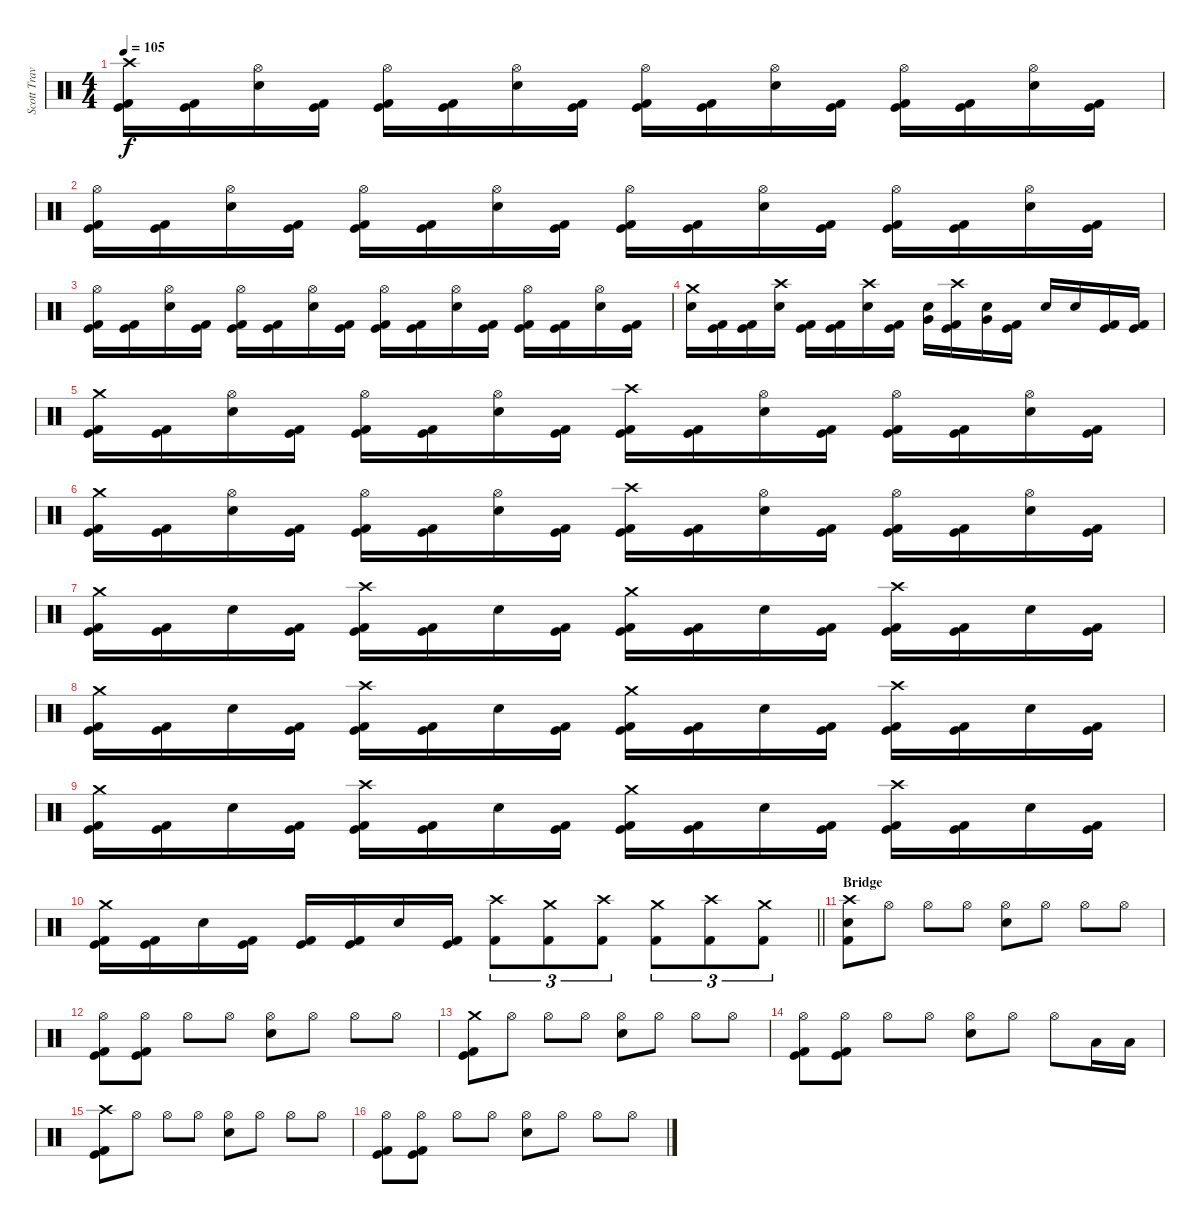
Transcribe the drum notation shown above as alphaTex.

\track ("Scott Travis" "Scott Trav") {instrument percussion}
\staff {score}
\articulation defaults
\ts (4 4)
\tempo 105
\clef neutral
\ks c
("Crash high (hit)" "Kick (hit) 2" "Kick (hit)").16{dy f} ("Kick (hit) 2" "Kick (hit)").16 ("Hi-Hat (open)" "Snare (hit) 2").16 ("Kick (hit) 2" "Kick (hit)").16 ("Hi-Hat (open)" "Kick (hit) 2" "Kick (hit)").16 ("Kick (hit) 2" "Kick (hit)").16 ("Hi-Hat (open)" "Snare (hit) 2").16 ("Kick (hit) 2" "Kick (hit)").16 ("Hi-Hat (open)" "Kick (hit) 2" "Kick (hit)").16 ("Kick (hit) 2" "Kick (hit)").16 ("Hi-Hat (open)" "Snare (hit) 2").16 ("Kick (hit) 2" "Kick (hit)").16 ("Hi-Hat (open)" "Kick (hit) 2" "Kick (hit)").16 ("Kick (hit) 2" "Kick (hit)").16 ("Hi-Hat (open)" "Snare (hit) 2").16 ("Kick (hit) 2" "Kick (hit)").16 |
("Hi-Hat (open)" "Kick (hit) 2" "Kick (hit)").16 ("Kick (hit) 2" "Kick (hit)").16 ("Hi-Hat (open)" "Snare (hit) 2").16 ("Kick (hit) 2" "Kick (hit)").16 ("Hi-Hat (open)" "Kick (hit) 2" "Kick (hit)").16 ("Kick (hit) 2" "Kick (hit)").16 ("Hi-Hat (open)" "Snare (hit) 2").16 ("Kick (hit) 2" "Kick (hit)").16 ("Hi-Hat (open)" "Kick (hit) 2" "Kick (hit)").16 ("Kick (hit) 2" "Kick (hit)").16 ("Hi-Hat (open)" "Snare (hit) 2").16 ("Kick (hit) 2" "Kick (hit)").16 ("Hi-Hat (open)" "Kick (hit) 2" "Kick (hit)").16 ("Kick (hit) 2" "Kick (hit)").16 ("Hi-Hat (open)" "Snare (hit) 2").16 ("Kick (hit) 2" "Kick (hit)").16 |
("Hi-Hat (open)" "Kick (hit) 2" "Kick (hit)").16 ("Kick (hit) 2" "Kick (hit)").16 ("Hi-Hat (open)" "Snare (hit) 2").16 ("Kick (hit) 2" "Kick (hit)").16 ("Hi-Hat (open)" "Kick (hit) 2" "Kick (hit)").16 ("Kick (hit) 2" "Kick (hit)").16 ("Hi-Hat (open)" "Snare (hit) 2").16 ("Kick (hit) 2" "Kick (hit)").16 ("Hi-Hat (open)" "Kick (hit) 2" "Kick (hit)").16 ("Kick (hit) 2" "Kick (hit)").16 ("Hi-Hat (open)" "Snare (hit) 2").16 ("Kick (hit) 2" "Kick (hit)").16 ("Hi-Hat (open)" "Kick (hit) 2" "Kick (hit)").16 ("Kick (hit) 2" "Kick (hit)").16 ("Hi-Hat (open)" "Snare (hit) 2").16 ("Kick (hit) 2" "Kick (hit)").16 |
("Crash medium (hit)" "Snare (hit) 2").16 ("Kick (hit) 2" "Kick (hit)").16 ("Kick (hit)" "Kick (hit) 2").16 ("Crash high (hit)" "Snare (hit) 2").16 ("Kick (hit) 2" "Kick (hit)").16 ("Kick (hit) 2" "Kick (hit)").16 ("Crash high (hit)" "Snare (hit) 2").16 ("Kick (hit) 2" "Kick (hit)").16 ("Snare (hit) 2" "Very Low Tom (hit)").16 ("Crash high (hit)" "Kick (hit) 2" "Kick (hit)").16 ("Snare (hit) 2" "Very Low Tom (hit)").16 ("Kick (hit) 2" "Kick (hit)").16 "Snare (hit) 2".16 "Snare (hit) 2".16 ("Kick (hit)" "Kick (hit) 2").16 ("Kick (hit) 2" "Kick (hit)").16 |
("Crash medium (hit)" "Kick (hit) 2" "Kick (hit)").16 ("Kick (hit) 2" "Kick (hit)").16 ("Hi-Hat (open)" "Snare (hit) 2").16 ("Kick (hit) 2" "Kick (hit)").16 ("Hi-Hat (open)" "Kick (hit) 2" "Kick (hit)").16 ("Kick (hit) 2" "Kick (hit)").16 ("Hi-Hat (open)" "Snare (hit) 2").16 ("Kick (hit) 2" "Kick (hit)").16 ("Crash high (hit)" "Kick (hit) 2" "Kick (hit)").16 ("Kick (hit) 2" "Kick (hit)").16 ("Hi-Hat (open)" "Snare (hit) 2").16 ("Kick (hit) 2" "Kick (hit)").16 ("Hi-Hat (open)" "Kick (hit) 2" "Kick (hit)").16 ("Kick (hit) 2" "Kick (hit)").16 ("Hi-Hat (open)" "Snare (hit) 2").16 ("Kick (hit) 2" "Kick (hit)").16 |
("Crash medium (hit)" "Kick (hit) 2" "Kick (hit)").16 ("Kick (hit) 2" "Kick (hit)").16 ("Hi-Hat (open)" "Snare (hit) 2").16 ("Kick (hit) 2" "Kick (hit)").16 ("Hi-Hat (open)" "Kick (hit) 2" "Kick (hit)").16 ("Kick (hit) 2" "Kick (hit)").16 ("Hi-Hat (open)" "Snare (hit) 2").16 ("Kick (hit) 2" "Kick (hit)").16 ("Crash high (hit)" "Kick (hit) 2" "Kick (hit)").16 ("Kick (hit) 2" "Kick (hit)").16 ("Hi-Hat (open)" "Snare (hit) 2").16 ("Kick (hit) 2" "Kick (hit)").16 ("Hi-Hat (open)" "Kick (hit) 2" "Kick (hit)").16 ("Kick (hit) 2" "Kick (hit)").16 ("Hi-Hat (open)" "Snare (hit) 2").16 ("Kick (hit) 2" "Kick (hit)").16 |
("Crash medium (hit)" "Kick (hit) 2" "Kick (hit)").16 ("Kick (hit) 2" "Kick (hit)").16 "Snare (hit) 2".16 ("Kick (hit) 2" "Kick (hit)").16 ("Crash high (hit)" "Kick (hit) 2" "Kick (hit)").16 ("Kick (hit) 2" "Kick (hit)").16 "Snare (hit) 2".16 ("Kick (hit) 2" "Kick (hit)").16 ("Crash medium (hit)" "Kick (hit) 2" "Kick (hit)").16 ("Kick (hit) 2" "Kick (hit)").16 "Snare (hit) 2".16 ("Kick (hit) 2" "Kick (hit)").16 ("Crash high (hit)" "Kick (hit) 2" "Kick (hit)").16 ("Kick (hit) 2" "Kick (hit)").16 "Snare (hit) 2".16 ("Kick (hit) 2" "Kick (hit)").16 |
("Crash medium (hit)" "Kick (hit) 2" "Kick (hit)").16 ("Kick (hit) 2" "Kick (hit)").16 "Snare (hit) 2".16 ("Kick (hit) 2" "Kick (hit)").16 ("Crash high (hit)" "Kick (hit) 2" "Kick (hit)").16 ("Kick (hit) 2" "Kick (hit)").16 "Snare (hit) 2".16 ("Kick (hit) 2" "Kick (hit)").16 ("Crash medium (hit)" "Kick (hit) 2" "Kick (hit)").16 ("Kick (hit) 2" "Kick (hit)").16 "Snare (hit) 2".16 ("Kick (hit) 2" "Kick (hit)").16 ("Crash high (hit)" "Kick (hit) 2" "Kick (hit)").16 ("Kick (hit) 2" "Kick (hit)").16 "Snare (hit) 2".16 ("Kick (hit) 2" "Kick (hit)").16 |
("Crash medium (hit)" "Kick (hit) 2" "Kick (hit)").16 ("Kick (hit) 2" "Kick (hit)").16 "Snare (hit) 2".16 ("Kick (hit) 2" "Kick (hit)").16 ("Crash high (hit)" "Kick (hit) 2" "Kick (hit)").16 ("Kick (hit) 2" "Kick (hit)").16 "Snare (hit) 2".16 ("Kick (hit) 2" "Kick (hit)").16 ("Crash medium (hit)" "Kick (hit) 2" "Kick (hit)").16 ("Kick (hit) 2" "Kick (hit)").16 "Snare (hit) 2".16 ("Kick (hit) 2" "Kick (hit)").16 ("Crash high (hit)" "Kick (hit) 2" "Kick (hit)").16 ("Kick (hit) 2" "Kick (hit)").16 "Snare (hit) 2".16 ("Kick (hit) 2" "Kick (hit)").16 |
\barLineRight lightlight
("Crash medium (hit)" "Kick (hit) 2" "Kick (hit)").16 ("Kick (hit) 2" "Kick (hit)").16 "Snare (hit) 2".16 ("Kick (hit) 2" "Kick (hit)").16 ("Kick (hit) 2" "Kick (hit)").16 ("Kick (hit) 2" "Kick (hit)").16 "Snare (hit) 2".16 ("Kick (hit) 2" "Kick (hit)").16 ("Crash high (hit)" "Kick (hit) 2").8{tu (3 2)} ("Crash medium (hit)" "Kick (hit) 2").8{tu (3 2)} ("Crash high (hit)" "Kick (hit) 2").8{tu (3 2)} ("Crash medium (hit)" "Kick (hit) 2").8{tu (3 2)} ("Crash high (hit)" "Kick (hit) 2").8{tu (3 2)} ("Crash medium (hit)" "Kick (hit) 2").8{tu (3 2)} |
\section ("" "Bridge")
("Crash high (hit)" "Snare (hit) 2" "Kick (hit) 2").8 "Hi-Hat (open)".8 "Hi-Hat (open)".8 "Hi-Hat (open)".8 ("Hi-Hat (open)" "Snare (hit) 2").8 "Hi-Hat (open)".8 "Hi-Hat (open)".8 "Hi-Hat (open)".8 |
("Hi-Hat (open)" "Kick (hit)" "Kick (hit) 2").8 ("Hi-Hat (open)" "Kick (hit)" "Kick (hit) 2").8 "Hi-Hat (open)".8 "Hi-Hat (open)".8 ("Hi-Hat (open)" "Snare (hit) 2").8 "Hi-Hat (open)".8 "Hi-Hat (open)".8 "Hi-Hat (open)".8 |
("Crash medium (hit)" "Kick (hit)" "Kick (hit) 2").8 "Hi-Hat (open)".8 "Hi-Hat (open)".8 "Hi-Hat (open)".8 ("Hi-Hat (open)" "Snare (hit) 2").8 "Hi-Hat (open)".8 "Hi-Hat (open)".8 "Hi-Hat (open)".8 |
("Hi-Hat (open)" "Kick (hit)" "Kick (hit) 2").8 ("Hi-Hat (open)" "Kick (hit)" "Kick (hit) 2").8 "Hi-Hat (open)".8 "Hi-Hat (open)".8 ("Hi-Hat (open)" "Snare (hit) 2").8 "Hi-Hat (open)".8 "Hi-Hat (open)".8 "Low Tom (hit)".16 "Low Tom (hit)".16 |
("Crash high (hit)" "Kick (hit)" "Kick (hit) 2").8 "Hi-Hat (open)".8 "Hi-Hat (open)".8 "Hi-Hat (open)".8 ("Hi-Hat (open)" "Snare (hit) 2").8 "Hi-Hat (open)".8 "Hi-Hat (open)".8 "Hi-Hat (open)".8 |
("Hi-Hat (open)" "Kick (hit)" "Kick (hit) 2").8 ("Hi-Hat (open)" "Kick (hit)" "Kick (hit) 2").8 "Hi-Hat (open)".8 "Hi-Hat (open)".8 ("Hi-Hat (open)" "Snare (hit) 2").8 "Hi-Hat (open)".8 "Hi-Hat (open)".8 "Hi-Hat (open)".8
